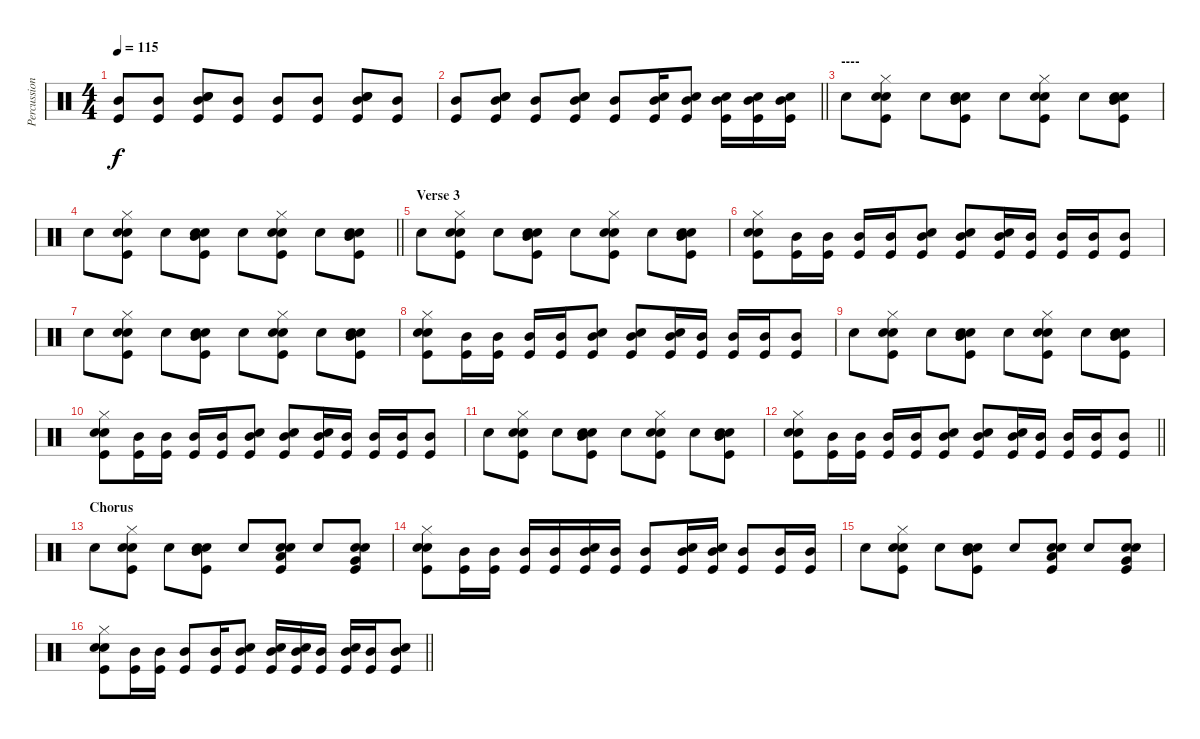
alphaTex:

\track ("Percussions" "Percussion") {instrument percussion}
\staff {score}
\articulation defaults
\ts (4 4)
\tempo 115
\clef neutral
\ks c
("Mid Tom (hit)" "Kick (hit)").8{dy f} ("Mid Tom (hit)" "Kick (hit)").8 ("Mid Tom (hit)" "Snare (hit) 2" "Electric Snare (hit)" "Kick (hit)").8 ("Mid Tom (hit)" "Kick (hit)").8 ("Mid Tom (hit)" "Kick (hit)").8 ("Mid Tom (hit)" "Kick (hit)").8 ("Mid Tom (hit)" "Snare (hit) 2" "Electric Snare (hit)" "Kick (hit)").8 ("Mid Tom (hit)" "Kick (hit)").8 |
\barLineRight lightlight
("Mid Tom (hit)" "Kick (hit)").8 ("Mid Tom (hit)" "Snare (hit) 2" "Electric Snare (hit)" "Kick (hit)").8 ("Mid Tom (hit)" "Kick (hit)").8 ("Mid Tom (hit)" "Snare (hit) 2" "Electric Snare (hit)" "Kick (hit)").8 ("Mid Tom (hit)" "Kick (hit)").8 ("Mid Tom (hit)" "Snare (hit) 2" "Kick (hit)").16 ("Mid Tom (hit)" "Snare (hit) 2" "Kick (hit)").8 ("Mid Tom (hit)" "Snare (hit) 2" "Kick (hit)").16 ("Mid Tom (hit)" "Snare (hit) 2" "Kick (hit)").16 ("Mid Tom (hit)" "Electric Snare (hit)" "Kick (hit)").16 |
\section ("" "----")
"Snare (hit) 2".8 ("Hi-Hat (closed)" "Snare (hit) 2" "Electric Snare (hit)" "Kick (hit)").8 "Snare (hit) 2".8 ("Mid Tom (hit)" "Snare (hit) 2" "Electric Snare (hit)" "Kick (hit)").8 "Snare (hit) 2".8 ("Hi-Hat (closed)" "Snare (hit) 2" "Electric Snare (hit)" "Kick (hit)").8 "Snare (hit) 2".8 ("Mid Tom (hit)" "Snare (hit) 2" "Electric Snare (hit)" "Kick (hit)").8 |
\barLineRight lightlight "Snare (hit) 2".8
("Hi-Hat (closed)" "Snare (hit) 2" "Electric Snare (hit)" "Kick (hit)").8 "Snare (hit) 2".8 ("Mid Tom (hit)" "Snare (hit) 2" "Electric Snare (hit)" "Kick (hit)").8 "Snare (hit) 2".8 ("Hi-Hat (closed)" "Snare (hit) 2" "Electric Snare (hit)" "Kick (hit)").8 "Snare (hit) 2".8 ("Mid Tom (hit)" "Snare (hit) 2" "Electric Snare (hit)" "Kick (hit)").8 |
\section ("" "Verse 3")
"Snare (hit) 2".8 ("Hi-Hat (closed)" "Snare (hit) 2" "Electric Snare (hit)" "Kick (hit)").8 "Snare (hit) 2".8 ("Mid Tom (hit)" "Snare (hit) 2" "Electric Snare (hit)" "Kick (hit)").8 "Snare (hit) 2".8 ("Hi-Hat (closed)" "Snare (hit) 2" "Electric Snare (hit)" "Kick (hit)").8 "Snare (hit) 2".8 ("Mid Tom (hit)" "Snare (hit) 2" "Electric Snare (hit)" "Kick (hit)").8 |
("Hi-Hat (closed)" "Snare (hit) 2" "Electric Snare (hit)" "Kick (hit)").8 ("Mid Tom (hit)" "Kick (hit)").16 ("Mid Tom (hit)" "Kick (hit)").16 ("Mid Tom (hit)" "Kick (hit)").16 ("Mid Tom (hit)" "Kick (hit)").16 ("Snare (hit) 2" "Mid Tom (hit)" "Kick (hit)").8 ("Snare (hit) 2" "Mid Tom (hit)" "Kick (hit)").8 ("Snare (hit) 2" "Mid Tom (hit)" "Kick (hit)").16 ("Mid Tom (hit)" "Kick (hit)").16 ("Mid Tom (hit)" "Kick (hit)").16 ("Mid Tom (hit)" "Kick (hit)").16 ("Mid Tom (hit)" "Kick (hit)").8 |
"Snare (hit) 2".8 ("Hi-Hat (closed)" "Snare (hit) 2" "Electric Snare (hit)" "Kick (hit)").8 "Snare (hit) 2".8 ("Mid Tom (hit)" "Snare (hit) 2" "Electric Snare (hit)" "Kick (hit)").8 "Snare (hit) 2".8 ("Hi-Hat (closed)" "Snare (hit) 2" "Electric Snare (hit)" "Kick (hit)").8 "Snare (hit) 2".8 ("Mid Tom (hit)" "Snare (hit) 2" "Electric Snare (hit)" "Kick (hit)").8 |
("Hi-Hat (closed)" "Snare (hit) 2" "Electric Snare (hit)" "Kick (hit)").8 ("Mid Tom (hit)" "Kick (hit)").16 ("Mid Tom (hit)" "Kick (hit)").16 ("Mid Tom (hit)" "Kick (hit)").16 ("Mid Tom (hit)" "Kick (hit)").16 ("Snare (hit) 2" "Mid Tom (hit)" "Kick (hit)").8 ("Snare (hit) 2" "Mid Tom (hit)" "Kick (hit)").8 ("Snare (hit) 2" "Mid Tom (hit)" "Kick (hit)").16 ("Mid Tom (hit)" "Kick (hit)").16 ("Mid Tom (hit)" "Kick (hit)").16 ("Mid Tom (hit)" "Kick (hit)").16 ("Mid Tom (hit)" "Kick (hit)").8 |
"Snare (hit) 2".8 ("Hi-Hat (closed)" "Snare (hit) 2" "Electric Snare (hit)" "Kick (hit)").8 "Snare (hit) 2".8 ("Mid Tom (hit)" "Snare (hit) 2" "Electric Snare (hit)" "Kick (hit)").8 "Snare (hit) 2".8 ("Hi-Hat (closed)" "Snare (hit) 2" "Electric Snare (hit)" "Kick (hit)").8 "Snare (hit) 2".8 ("Mid Tom (hit)" "Snare (hit) 2" "Electric Snare (hit)" "Kick (hit)").8 |
("Hi-Hat (closed)" "Snare (hit) 2" "Electric Snare (hit)" "Kick (hit)").8 ("Mid Tom (hit)" "Kick (hit)").16 ("Mid Tom (hit)" "Kick (hit)").16 ("Mid Tom (hit)" "Kick (hit)").16 ("Mid Tom (hit)" "Kick (hit)").16 ("Snare (hit) 2" "Mid Tom (hit)" "Kick (hit)").8 ("Snare (hit) 2" "Mid Tom (hit)" "Kick (hit)").8 ("Snare (hit) 2" "Mid Tom (hit)" "Kick (hit)").16 ("Mid Tom (hit)" "Kick (hit)").16 ("Mid Tom (hit)" "Kick (hit)").16 ("Mid Tom (hit)" "Kick (hit)").16 ("Mid Tom (hit)" "Kick (hit)").8 |
"Snare (hit) 2".8 ("Hi-Hat (closed)" "Snare (hit) 2" "Electric Snare (hit)" "Kick (hit)").8 "Snare (hit) 2".8 ("Mid Tom (hit)" "Snare (hit) 2" "Electric Snare (hit)" "Kick (hit)").8 "Snare (hit) 2".8 ("Hi-Hat (closed)" "Snare (hit) 2" "Electric Snare (hit)" "Kick (hit)").8 "Snare (hit) 2".8 ("Mid Tom (hit)" "Snare (hit) 2" "Electric Snare (hit)" "Kick (hit)").8 |
\barLineRight lightlight
("Hi-Hat (closed)" "Snare (hit) 2" "Electric Snare (hit)" "Kick (hit)").8 ("Mid Tom (hit)" "Kick (hit)").16 ("Mid Tom (hit)" "Kick (hit)").16 ("Mid Tom (hit)" "Kick (hit)").16 ("Mid Tom (hit)" "Kick (hit)").16 ("Snare (hit) 2" "Mid Tom (hit)" "Kick (hit)").8 ("Snare (hit) 2" "Mid Tom (hit)" "Kick (hit)").8 ("Snare (hit) 2" "Mid Tom (hit)" "Kick (hit)").16 ("Mid Tom (hit)" "Kick (hit)").16 ("Mid Tom (hit)" "Kick (hit)").16 ("Mid Tom (hit)" "Kick (hit)").16 ("Mid Tom (hit)" "Kick (hit)").8 |
\section ("" "Chorus")
"Snare (hit) 2".8 ("Hi-Hat (closed)" "Snare (hit) 2" "Electric Snare (hit)" "Kick (hit)").8 "Snare (hit) 2".8 ("Mid Tom (hit)" "Snare (hit) 2" "Electric Snare (hit)" "Kick (hit)").8 "Snare (hit) 2".8 ("Low Tom (hit)" "Snare (hit) 2" "Electric Snare (hit)" "Kick (hit)").8 "Snare (hit) 2".8 ("Very Low Tom (hit)" "Snare (hit) 2" "Electric Snare (hit)" "Kick (hit)").8 |
("Hi-Hat (closed)" "Snare (hit) 2" "Electric Snare (hit)" "Kick (hit)").8 ("Mid Tom (hit)" "Kick (hit)").16 ("Mid Tom (hit)" "Kick (hit)").16 ("Mid Tom (hit)" "Kick (hit)").16 ("Mid Tom (hit)" "Kick (hit)").16 ("Snare (hit) 2" "Mid Tom (hit)" "Kick (hit)").16 ("Mid Tom (hit)" "Kick (hit)").16 ("Mid Tom (hit)" "Kick (hit)").8 ("Snare (hit) 2" "Mid Tom (hit)" "Kick (hit)").16 ("Snare (hit) 2" "Mid Tom (hit)" "Kick (hit)").16 ("Mid Tom (hit)" "Kick (hit)").8 ("Mid Tom (hit)" "Kick (hit)").16 ("Mid Tom (hit)" "Kick (hit)").16 |
"Snare (hit) 2".8 ("Hi-Hat (closed)" "Snare (hit) 2" "Electric Snare (hit)" "Kick (hit)").8 "Snare (hit) 2".8 ("Mid Tom (hit)" "Snare (hit) 2" "Electric Snare (hit)" "Kick (hit)").8 "Snare (hit) 2".8 ("Low Tom (hit)" "Snare (hit) 2" "Electric Snare (hit)" "Kick (hit)").8 "Snare (hit) 2".8 ("Very Low Tom (hit)" "Snare (hit) 2" "Electric Snare (hit)" "Kick (hit)").8 |
\barLineRight lightlight
("Hi-Hat (closed)" "Snare (hit) 2" "Electric Snare (hit)" "Kick (hit)").8 ("Mid Tom (hit)" "Kick (hit)").16 ("Mid Tom (hit)" "Kick (hit)").16 ("Mid Tom (hit)" "Kick (hit)").8 ("Mid Tom (hit)" "Kick (hit)").16 ("Snare (hit) 2" "Mid Tom (hit)" "Kick (hit)").8 ("Snare (hit) 2" "Mid Tom (hit)" "Kick (hit)").16 ("Snare (hit) 2" "Mid Tom (hit)" "Kick (hit)").16 ("Mid Tom (hit)" "Kick (hit)").16 ("Snare (hit) 2" "Mid Tom (hit)" "Kick (hit)").16 ("Mid Tom (hit)" "Kick (hit)").16 ("Snare (hit) 2" "Mid Tom (hit)" "Kick (hit)").8
